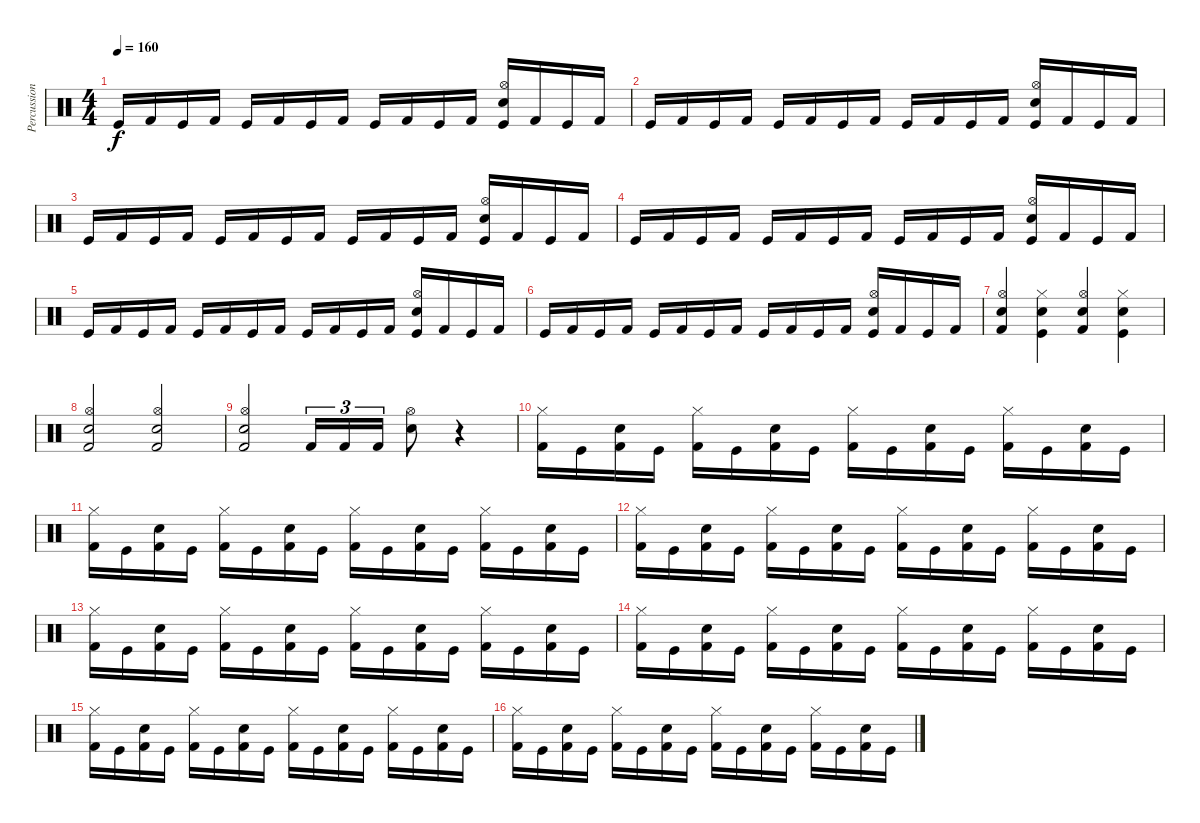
\track ("Percussions" "Percussion") {instrument percussion}
\staff {score}
\articulation defaults
\ts (4 4)
\tempo 160
\clef neutral
\ks c "Kick (hit)".16{dy f} "Kick (hit) 2".16 "Kick (hit)".16 "Kick (hit) 2".16 "Kick (hit)".16 "Kick (hit) 2".16 "Kick (hit)".16 "Kick (hit) 2".16 "Kick (hit)".16 "Kick (hit) 2".16 "Kick (hit)".16 "Kick (hit) 2".16
("Hi-Hat (open)" "Electric Snare (hit)" "Kick (hit)").16 "Kick (hit) 2".16 "Kick (hit)".16 "Kick (hit) 2".16 |
"Kick (hit)".16 "Kick (hit) 2".16 "Kick (hit)".16 "Kick (hit) 2".16 "Kick (hit)".16 "Kick (hit) 2".16 "Kick (hit)".16 "Kick (hit) 2".16 "Kick (hit)".16 "Kick (hit) 2".16 "Kick (hit)".16 "Kick (hit) 2".16 ("Hi-Hat (open)" "Electric Snare (hit)" "Kick (hit)").16 "Kick (hit) 2".16 "Kick (hit)".16 "Kick (hit) 2".16 |
"Kick (hit)".16 "Kick (hit) 2".16 "Kick (hit)".16 "Kick (hit) 2".16 "Kick (hit)".16 "Kick (hit) 2".16 "Kick (hit)".16 "Kick (hit) 2".16 "Kick (hit)".16 "Kick (hit) 2".16 "Kick (hit)".16 "Kick (hit) 2".16 ("Hi-Hat (open)" "Electric Snare (hit)" "Kick (hit)").16 "Kick (hit) 2".16 "Kick (hit)".16 "Kick (hit) 2".16 |
"Kick (hit)".16 "Kick (hit) 2".16 "Kick (hit)".16 "Kick (hit) 2".16 "Kick (hit)".16 "Kick (hit) 2".16 "Kick (hit)".16 "Kick (hit) 2".16 "Kick (hit)".16 "Kick (hit) 2".16 "Kick (hit)".16 "Kick (hit) 2".16 ("Hi-Hat (open)" "Electric Snare (hit)" "Kick (hit)").16 "Kick (hit) 2".16 "Kick (hit)".16 "Kick (hit) 2".16 |
"Kick (hit)".16 "Kick (hit) 2".16 "Kick (hit)".16 "Kick (hit) 2".16 "Kick (hit)".16 "Kick (hit) 2".16 "Kick (hit)".16 "Kick (hit) 2".16 "Kick (hit)".16 "Kick (hit) 2".16 "Kick (hit)".16 "Kick (hit) 2".16 ("Hi-Hat (open)" "Electric Snare (hit)" "Kick (hit)").16 "Kick (hit) 2".16 "Kick (hit)".16 "Kick (hit) 2".16 |
"Kick (hit)".16 "Kick (hit) 2".16 "Kick (hit)".16 "Kick (hit) 2".16 "Kick (hit)".16 "Kick (hit) 2".16 "Kick (hit)".16 "Kick (hit) 2".16 "Kick (hit)".16 "Kick (hit) 2".16 "Kick (hit)".16 "Kick (hit) 2".16 ("Hi-Hat (open)" "Electric Snare (hit)" "Kick (hit)").16 "Kick (hit) 2".16 "Kick (hit)".16 "Kick (hit) 2".16 |
("Electric Snare (hit)" "Kick (hit) 2" "Hi-Hat (open)").4 ("Electric Snare (hit)" "Kick (hit)" "Hi-Hat (closed)").4 ("Electric Snare (hit)" "Kick (hit) 2" "Hi-Hat (open)").4 ("Electric Snare (hit)" "Kick (hit)" "Hi-Hat (closed)").4 |
("Hi-Hat (open)" "Electric Snare (hit)" "Kick (hit) 2").2 ("Hi-Hat (open)" "Electric Snare (hit)" "Kick (hit) 2").2 |
("Hi-Hat (open)" "Electric Snare (hit)" "Kick (hit) 2").2 "Kick (hit) 2".16{tu (3 2)} "Kick (hit) 2".16{tu (3 2)} "Kick (hit) 2".16{tu (3 2)} ("Hi-Hat (open)" "Electric Snare (hit)").8 r.4 |
("Hi-Hat (closed)" "Kick (hit) 2").16 "Kick (hit)".16 ("Snare (hit) 2" "Kick (hit) 2").16 "Kick (hit)".16 ("Hi-Hat (closed)" "Kick (hit) 2").16 "Kick (hit)".16 ("Snare (hit) 2" "Kick (hit) 2").16 "Kick (hit)".16 ("Hi-Hat (closed)" "Kick (hit) 2").16 "Kick (hit)".16 ("Snare (hit) 2" "Kick (hit) 2").16 "Kick (hit)".16 ("Hi-Hat (closed)" "Kick (hit) 2").16 "Kick (hit)".16 ("Snare (hit) 2" "Kick (hit) 2").16 "Kick (hit)".16 |
("Hi-Hat (closed)" "Kick (hit) 2").16 "Kick (hit)".16 ("Snare (hit) 2" "Kick (hit) 2").16 "Kick (hit)".16 ("Hi-Hat (closed)" "Kick (hit) 2").16 "Kick (hit)".16 ("Snare (hit) 2" "Kick (hit) 2").16 "Kick (hit)".16 ("Hi-Hat (closed)" "Kick (hit) 2").16 "Kick (hit)".16 ("Snare (hit) 2" "Kick (hit) 2").16 "Kick (hit)".16 ("Hi-Hat (closed)" "Kick (hit) 2").16 "Kick (hit)".16 ("Snare (hit) 2" "Kick (hit) 2").16 "Kick (hit)".16 |
("Hi-Hat (closed)" "Kick (hit) 2").16 "Kick (hit)".16 ("Snare (hit) 2" "Kick (hit) 2").16 "Kick (hit)".16 ("Hi-Hat (closed)" "Kick (hit) 2").16 "Kick (hit)".16 ("Snare (hit) 2" "Kick (hit) 2").16 "Kick (hit)".16 ("Hi-Hat (closed)" "Kick (hit) 2").16 "Kick (hit)".16 ("Snare (hit) 2" "Kick (hit) 2").16 "Kick (hit)".16 ("Hi-Hat (closed)" "Kick (hit) 2").16 "Kick (hit)".16 ("Snare (hit) 2" "Kick (hit) 2").16 "Kick (hit)".16 |
("Hi-Hat (closed)" "Kick (hit) 2").16 "Kick (hit)".16 ("Snare (hit) 2" "Kick (hit) 2").16 "Kick (hit)".16 ("Hi-Hat (closed)" "Kick (hit) 2").16 "Kick (hit)".16 ("Snare (hit) 2" "Kick (hit) 2").16 "Kick (hit)".16 ("Hi-Hat (closed)" "Kick (hit) 2").16 "Kick (hit)".16 ("Snare (hit) 2" "Kick (hit) 2").16 "Kick (hit)".16 ("Hi-Hat (closed)" "Kick (hit) 2").16 "Kick (hit)".16 ("Snare (hit) 2" "Kick (hit) 2").16 "Kick (hit)".16 |
("Hi-Hat (closed)" "Kick (hit) 2").16 "Kick (hit)".16 ("Snare (hit) 2" "Kick (hit) 2").16 "Kick (hit)".16 ("Hi-Hat (closed)" "Kick (hit) 2").16 "Kick (hit)".16 ("Snare (hit) 2" "Kick (hit) 2").16 "Kick (hit)".16 ("Hi-Hat (closed)" "Kick (hit) 2").16 "Kick (hit)".16 ("Snare (hit) 2" "Kick (hit) 2").16 "Kick (hit)".16 ("Hi-Hat (closed)" "Kick (hit) 2").16 "Kick (hit)".16 ("Snare (hit) 2" "Kick (hit) 2").16 "Kick (hit)".16 |
("Hi-Hat (closed)" "Kick (hit) 2").16 "Kick (hit)".16 ("Snare (hit) 2" "Kick (hit) 2").16 "Kick (hit)".16 ("Hi-Hat (closed)" "Kick (hit) 2").16 "Kick (hit)".16 ("Snare (hit) 2" "Kick (hit) 2").16 "Kick (hit)".16 ("Hi-Hat (closed)" "Kick (hit) 2").16 "Kick (hit)".16 ("Snare (hit) 2" "Kick (hit) 2").16 "Kick (hit)".16 ("Hi-Hat (closed)" "Kick (hit) 2").16 "Kick (hit)".16 ("Snare (hit) 2" "Kick (hit) 2").16 "Kick (hit)".16 |
("Hi-Hat (closed)" "Kick (hit) 2").16 "Kick (hit)".16 ("Snare (hit) 2" "Kick (hit) 2").16 "Kick (hit)".16 ("Hi-Hat (closed)" "Kick (hit) 2").16 "Kick (hit)".16 ("Snare (hit) 2" "Kick (hit) 2").16 "Kick (hit)".16 ("Hi-Hat (closed)" "Kick (hit) 2").16 "Kick (hit)".16 ("Snare (hit) 2" "Kick (hit) 2").16 "Kick (hit)".16 ("Hi-Hat (closed)" "Kick (hit) 2").16 "Kick (hit)".16 ("Snare (hit) 2" "Kick (hit) 2").16 "Kick (hit)".16
